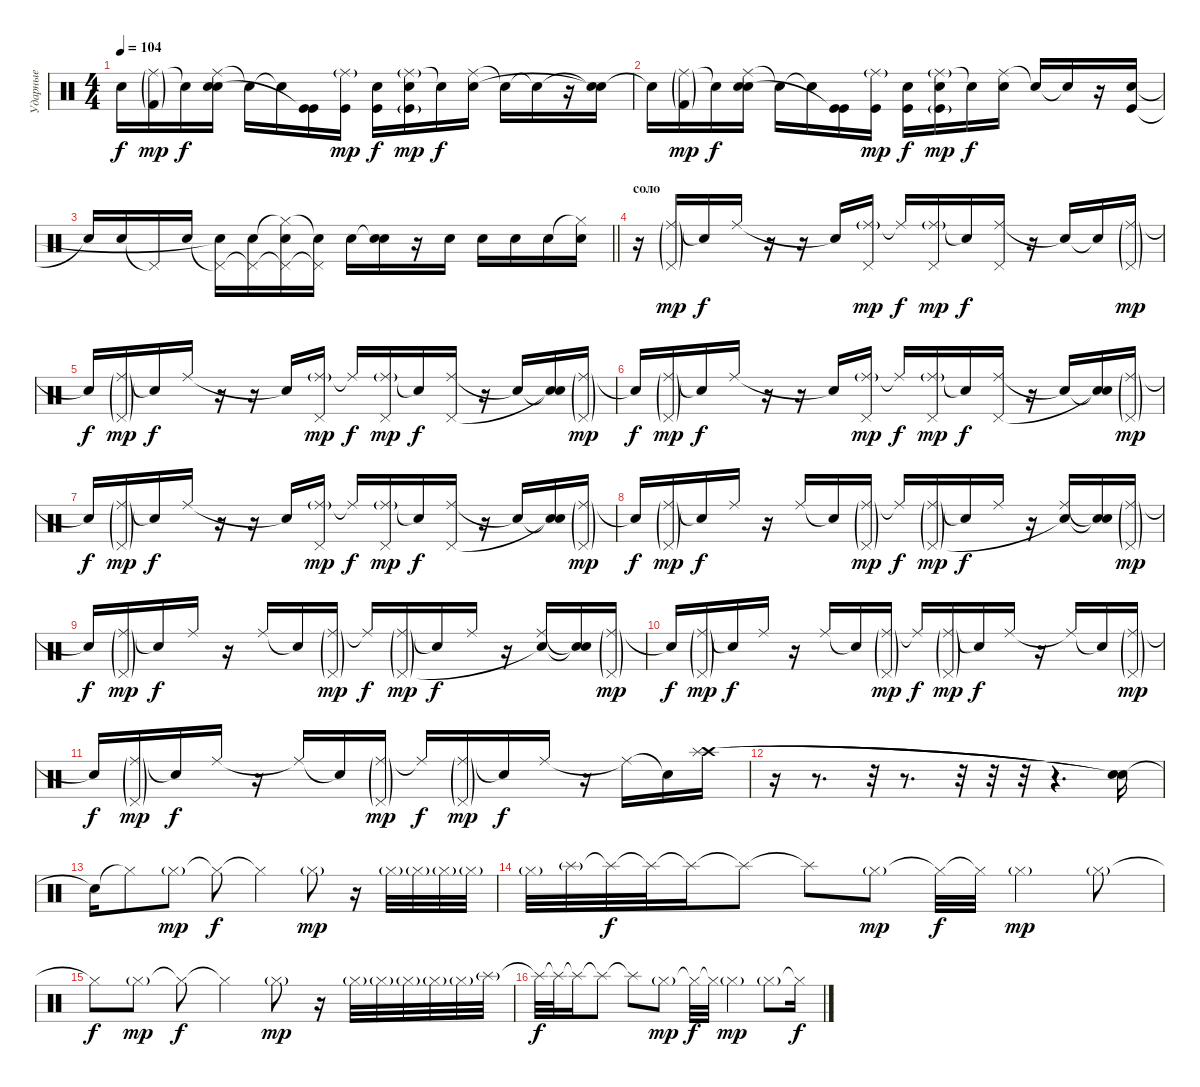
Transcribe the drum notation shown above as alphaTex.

\track ("Ударные" "Ударные") {instrument percussion}
\staff {score}
\articulation defaults
\ts (4 4)
\tempo 104
\clef neutral
\ks c "Snare (hit) 2"{t}.16{dy f}
("Ride (middle)"{g} "Kick (hit) 2"{g}).16{dy mp} "Electric Snare (hit)"{t}.16{dy f} ("Ride (middle)" "Snare (hit) 2" "Snare (hit) 2").16 "Electric Snare (hit)"{t}.16 "Electric Snare (hit)"{t}.16 ("Kick (hit)" "Kick (hit)"{t}).16 ("Ride (middle)"{g} "Kick (hit)").16{dy mp} ("Snare (hit) 2" "Kick (hit)").16{dy f} ("Ride (middle)"{g} "Snare (hit) 2" "Kick (hit)"{g}).16{dy mp} "Electric Snare (hit)"{t}.16{dy f} ("Ride (middle)" "Snare (hit) 2").16 "Electric Snare (hit)"{t}.16 "Electric Snare (hit)"{t}.16 r.16 ("Snare (hit)"{t} "Snare (hit)"{t}).16 |
"Snare (hit) 2"{t}.16 ("Ride (middle)"{g} "Kick (hit) 2"{g}).16{dy mp} "Electric Snare (hit)"{t}.16{dy f} ("Ride (middle)" "Snare (hit) 2" "Snare (hit) 2").16 "Electric Snare (hit)"{t}.16 "Electric Snare (hit)"{t}.16 ("Kick (hit)" "Kick (hit)"{t}).16 ("Ride (middle)"{g} "Kick (hit)").16{dy mp} ("Snare (hit) 2" "Kick (hit)").16{dy f} ("Ride (middle)"{g} "Snare (hit) 2" "Kick (hit)"{g}).16{dy mp} "Electric Snare (hit)"{t}.16{dy f} ("Ride (middle)" "Snare (hit) 2").16 "Electric Snare (hit)"{t}.16 "Electric Snare (hit)"{t}.16 r.16 ("Kick (hit)" "Snare (hit) 2").16 |
\barLineRight lightlight "Snare (hit)"{t}.16 "Snare (hit) 2".16 "Pedal Hi-Hat (hit)"{t}.16 "Snare (hit) 2".16
("Pedal Hi-Hat (hit)"{t} "Snare (hit) 2"{t}).16 ("Pedal Hi-Hat (hit)"{t} "Electric Snare (hit)").16 ("Pedal Hi-Hat (hit)"{t} "Hi-Hat (closed)"{t} "Snare (hit) 2").16 ("Pedal Hi-Hat (hit)"{t} "Snare (hit)"{t}).16 "Electric Snare (hit)".16 ("Snare (hit)"{t} "Snare (hit) 2").16 r.16 "Electric Snare (hit)".16 "Electric Snare (hit)".16 "Snare (hit) 2".16 "Snare (hit) 2".16 ("Hi-Hat (closed)"{t} "Snare (hit) 2").16 |
\section ("" "соло")
r.16 ("Ride (middle)"{g} "Pedal Hi-Hat (hit)"{g}).16{dy mp} "Snare (hit)"{t}.16{dy f} "Ride (middle)".16 r.16 r.16 "Snare (hit)"{t}.16 ("Ride (middle)"{g} "Pedal Hi-Hat (hit)").16{dy mp} "Ride (middle)"{t}.16{dy f} ("Ride (middle)"{g} "Pedal Hi-Hat (hit)").16{dy mp} "Snare (hit)"{t}.16{dy f} ("Ride (middle)" "Pedal Hi-Hat (hit)").16 r.16 "Snare (hit)"{t}.16 "Snare (hit)"{t}.16 ("Ride (middle)"{g} "Pedal Hi-Hat (hit)"{g}).16{dy mp} |
"Snare (hit)"{t}.16{dy f} ("Ride (middle)"{g} "Pedal Hi-Hat (hit)"{g}).16{dy mp} "Snare (hit)"{t}.16{dy f} "Ride (middle)".16 r.16 r.16 "Snare (hit)"{t}.16 ("Ride (middle)"{g} "Pedal Hi-Hat (hit)").16{dy mp} "Ride (middle)"{t}.16{dy f} ("Ride (middle)"{g} "Pedal Hi-Hat (hit)").16{dy mp} "Snare (hit)"{t}.16{dy f} ("Ride (middle)" "Pedal Hi-Hat (hit)").16 r.16 "Snare (hit)"{t}.16 ("Snare (hit)"{t} "Snare (hit)"{t}).16 ("Ride (middle)"{g} "Pedal Hi-Hat (hit)"{g}).16{dy mp} |
"Snare (hit)"{t}.16{dy f} ("Ride (middle)"{g} "Pedal Hi-Hat (hit)"{g}).16{dy mp} "Snare (hit)"{t}.16{dy f} "Ride (middle)".16 r.16 r.16 "Snare (hit)"{t}.16 ("Ride (middle)"{g} "Pedal Hi-Hat (hit)").16{dy mp} "Ride (middle)"{t}.16{dy f} ("Ride (middle)"{g} "Pedal Hi-Hat (hit)").16{dy mp} "Snare (hit)"{t}.16{dy f} ("Ride (middle)" "Pedal Hi-Hat (hit)").16 r.16 "Snare (hit)"{t}.16 ("Snare (hit)"{t} "Snare (hit)"{t}).16 ("Ride (middle)"{g} "Pedal Hi-Hat (hit)"{g}).16{dy mp} |
"Snare (hit)"{t}.16{dy f} ("Ride (middle)"{g} "Pedal Hi-Hat (hit)"{g}).16{dy mp} "Snare (hit)"{t}.16{dy f} "Ride (middle)".16 r.16 r.16 "Snare (hit)"{t}.16 ("Ride (middle)"{g} "Pedal Hi-Hat (hit)").16{dy mp} "Ride (middle)"{t}.16{dy f} ("Ride (middle)"{g} "Pedal Hi-Hat (hit)").16{dy mp} "Snare (hit)"{t}.16{dy f} ("Ride (middle)" "Pedal Hi-Hat (hit)").16 r.16 "Snare (hit)"{t}.16 ("Snare (hit)"{t} "Snare (hit)"{t}).16 ("Ride (middle)"{g} "Pedal Hi-Hat (hit)"{g}).16{dy mp} |
"Snare (hit)"{t}.16{dy f} ("Ride (middle)"{g} "Pedal Hi-Hat (hit)"{g}).16{dy mp} "Snare (hit)"{t}.16{dy f} "Ride (middle)".16 r.16 "Ride (middle)".16 "Snare (hit)"{t}.16 ("Ride (middle)"{g} "Pedal Hi-Hat (hit)"{g}).16{dy mp} "Ride (middle)"{t}.16{dy f} ("Ride (middle)"{g} "Pedal Hi-Hat (hit)"{g}).16{dy mp} "Snare (hit)"{t}.16{dy f} "Ride (middle)".16 r.16 ("Ride (middle)" "Snare (hit)"{t}).16 ("Snare (hit)"{t} "Snare (hit)"{t}).16 ("Ride (middle)"{g} "Pedal Hi-Hat (hit)"{g}).16{dy mp} |
"Snare (hit)"{t}.16{dy f} ("Ride (middle)"{g} "Pedal Hi-Hat (hit)"{g}).16{dy mp} "Snare (hit)"{t}.16{dy f} "Ride (middle)".16 r.16 "Ride (middle)".16 "Snare (hit)"{t}.16 ("Ride (middle)"{g} "Pedal Hi-Hat (hit)"{g}).16{dy mp} "Ride (middle)"{t}.16{dy f} ("Ride (middle)"{g} "Pedal Hi-Hat (hit)"{g}).16{dy mp} "Snare (hit)"{t}.16{dy f} "Ride (middle)".16 r.16 ("Ride (middle)" "Snare (hit)"{t}).16 ("Snare (hit)"{t} "Snare (hit)"{t}).16 ("Ride (middle)"{g} "Pedal Hi-Hat (hit)"{g}).16{dy mp} |
"Snare (hit)"{t}.16{dy f} ("Ride (middle)"{g} "Pedal Hi-Hat (hit)"{g}).16{dy mp} "Snare (hit)"{t}.16{dy f} "Ride (middle)".16 r.16 "Ride (middle)".16 "Snare (hit)"{t}.16 ("Ride (middle)"{g} "Pedal Hi-Hat (hit)"{g}).16{dy mp} "Ride (middle)"{t}.16{dy f} ("Ride (middle)"{g} "Pedal Hi-Hat (hit)"{g}).16{dy mp} "Snare (hit)"{t}.16{dy f} "Ride (middle)".16 r.16 "Ride (middle)"{t}.16 "Snare (hit)"{t}.16 ("Ride (middle)"{g} "Pedal Hi-Hat (hit)"{g}).16{dy mp} |
"Snare (hit)"{t}.16{dy f} ("Ride (middle)"{g} "Pedal Hi-Hat (hit)"{g}).16{dy mp} "Snare (hit)"{t}.16{dy f} "Ride (middle)".16 r.16 "Ride (middle)"{t}.16 "Snare (hit)"{t}.16 ("Ride (middle)"{g} "Pedal Hi-Hat (hit)"{g}).16{dy mp} "Ride (middle)"{t}.16{dy f} ("Ride (middle)"{g} "Pedal Hi-Hat (hit)"{g}).16{dy mp} "Snare (hit)"{t}.16{dy f} "Ride (middle)".16 r.16 "Ride (middle)"{t}.16 "Snare (hit)"{t}.16 ("Crash high (hit)" "Splash (hit)").16 |
r.16 r.8{d} r.32 r.8{d} r.32 r.32 r.32 r.4{d} ("Snare (hit)"{t} "Snare (hit)"{t}).16 |
"Snare (hit)"{t}.16 "Hi-Hat (closed)"{t}.8 "Hi-Hat (closed)"{g}.8{dy mp} "Hi-Hat (closed)"{t}.8{dy f} "Hi-Hat (closed)"{t}.4 "Hi-Hat (closed)"{g}.8{dy mp} r.16 "Hi-Hat (closed)"{g}.32 "Hi-Hat (closed)"{g}.32 "Hi-Hat (closed)"{g}.32 "Hi-Hat (closed)"{g}.32 |
"Hi-Hat (closed)"{g}.32 "Splash (hit)"{g}.32 "Splash (hit)"{t}.32{dy f} "Splash (hit)"{t}.32 "Splash (hit)"{t}.16 "Splash (hit)"{t}.8 "Splash (hit)"{t}.8 "Hi-Hat (closed)"{g}.8{dy mp} "Hi-Hat (closed)"{t}.32{dy f} "Hi-Hat (closed)"{t}.32 "Hi-Hat (closed)"{g}.4{dy mp} "Hi-Hat (closed)"{g}.8 |
"Hi-Hat (closed)"{t}.8{dy f} "Hi-Hat (closed)"{g}.8{dy mp} "Hi-Hat (closed)"{t}.8{dy f} "Hi-Hat (closed)"{t}.4 "Hi-Hat (closed)"{g}.8{dy mp} r.16 "Hi-Hat (closed)"{g}.32 "Hi-Hat (closed)"{g}.32 "Hi-Hat (closed)"{g}.32 "Hi-Hat (closed)"{g}.32 "Hi-Hat (closed)"{g}.32 "Splash (hit)"{g}.32 |
"Splash (hit)"{t}.32{dy f} "Splash (hit)"{t}.32 "Splash (hit)"{t}.16 "Splash (hit)"{t}.8 "Splash (hit)"{t}.8 "Hi-Hat (closed)"{g}.8{dy mp} "Hi-Hat (closed)"{t}.32{dy f} "Hi-Hat (closed)"{t}.32 "Hi-Hat (closed)"{g}.4{dy mp} "Hi-Hat (closed)"{g}.8 "Hi-Hat (closed)"{t}.16{dy f}
